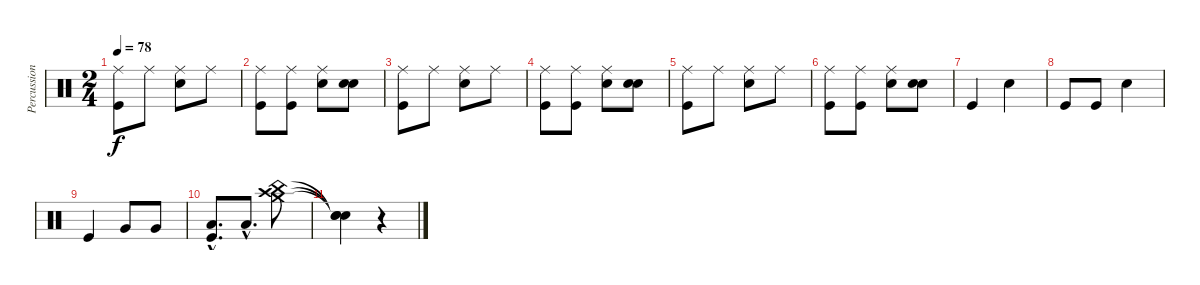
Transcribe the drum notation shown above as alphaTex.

\track ("Percussion" "Percussion") {instrument percussion}
\staff {score}
\articulation defaults
\ts (2 4)
\tempo 78
\clef neutral
\ks c
("Ride (middle)" "Kick (hit)").8{dy f} "Ride (middle)".8 ("Ride (middle)" "Metronome (bell)").8 "Ride (middle)".8 |
("Ride (middle)" "Kick (hit)").8 ("Ride (middle)" "Kick (hit)").8 ("Ride (middle)" "Metronome (bell)").8 ("Snare (hit)" "Metronome (bell)").8 |
("Ride (middle)" "Kick (hit)").8 "Ride (middle)".8 ("Ride (middle)" "Metronome (bell)").8 "Ride (middle)".8 |
("Ride (middle)" "Kick (hit)").8 ("Ride (middle)" "Kick (hit)").8 ("Ride (middle)" "Metronome (bell)").8 ("Snare (hit)" "Metronome (bell)").8 |
("Ride (middle)" "Kick (hit)").8 "Ride (middle)".8 ("Ride (middle)" "Metronome (bell)").8 "Ride (middle)".8 |
("Ride (middle)" "Kick (hit)").8 ("Ride (middle)" "Kick (hit)").8 ("Ride (middle)" "Metronome (bell)").8 ("Snare (hit)" "Metronome (bell)").8 |
"Kick (hit)".4 "Snare (hit) 2".4 |
"Kick (hit)".8 "Kick (hit)".8 "Snare (hit) 2".4 |
"Kick (hit)".4 "Very Low Tom (hit)".8 "Very Low Tom (hit)".8 |
("Low Floor Tom (hit)"{hac} "Kick (hit)"{hac}).8{d} "Low Floor Tom (hit)"{hac}.8{d} ("Crash medium (hit)" "Crash high (hit)" "China (hit)").8 |
("Snare (hit)"{t} "Snare (hit)"{t} "Snare (hit)"{t}).4 r.4
